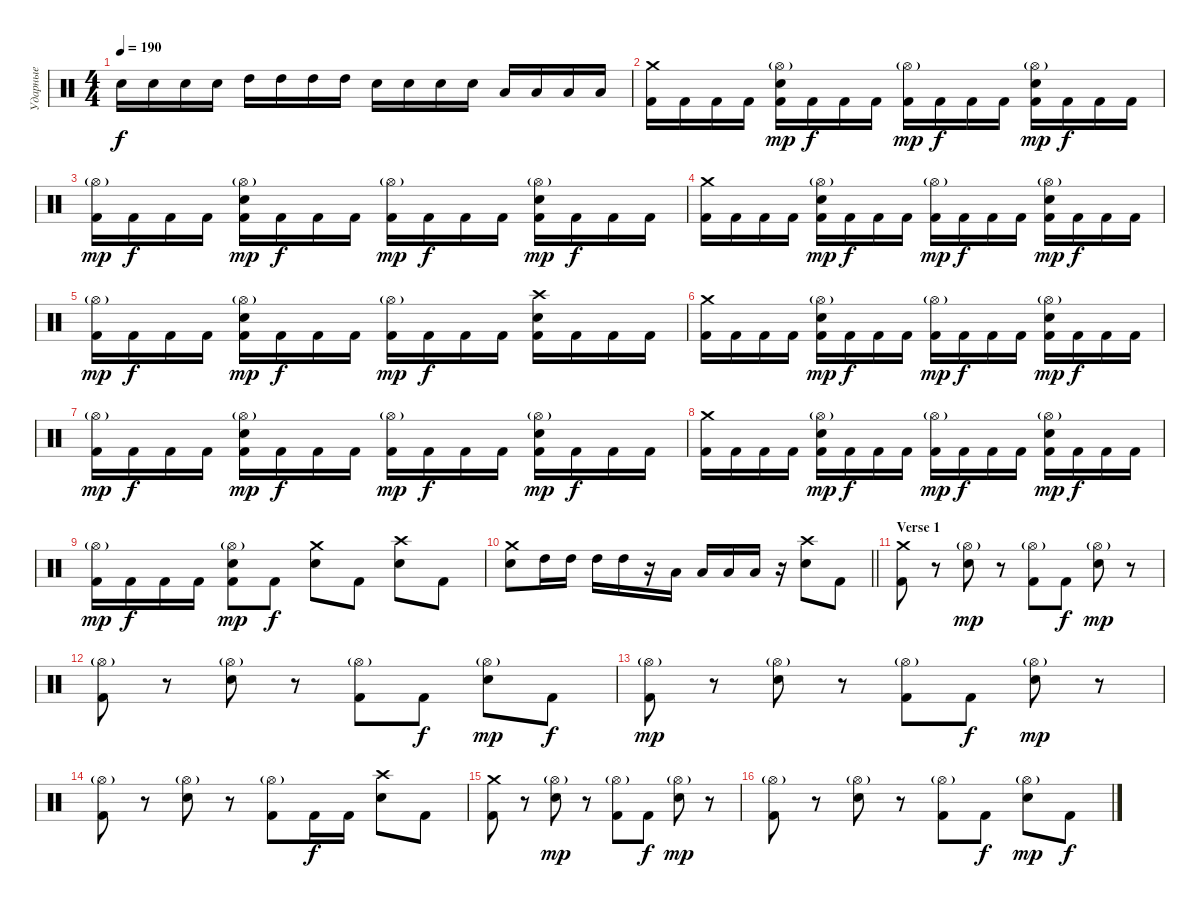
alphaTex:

\track ("Ударные" "Ударные") {instrument percussion}
\staff {score}
\articulation defaults
\ts (4 4)
\tempo 190
\clef neutral
\ks c "Electric Snare (hit)".16{dy f} "Electric Snare (hit)".16 "Electric Snare (hit)".16 "Electric Snare (hit)".16 "High Tom (hit)".16 "High Tom (hit)".16 "High Tom (hit)".16 "High Tom (hit)".16 "Electric Snare (hit)".16 "Electric Snare (hit)".16 "Electric Snare (hit)".16 "Electric Snare (hit)".16 "Low Tom (hit)".16 "Low Tom (hit)".16 "Low Tom (hit)".16 "Low Tom (hit)".16
|
("Crash medium (hit)" "Kick (hit) 2").16 "Kick (hit) 2".16 "Kick (hit) 2".16 "Kick (hit) 2".16 ("Hi-Hat (open)"{g} "Electric Snare (hit)" "Kick (hit) 2").16{dy mp} "Kick (hit) 2".16{dy f} "Kick (hit) 2".16 "Kick (hit) 2".16 ("Hi-Hat (open)"{g} "Kick (hit) 2").16{dy mp} "Kick (hit) 2".16{dy f} "Kick (hit) 2".16 "Kick (hit) 2".16 ("Hi-Hat (open)"{g} "Electric Snare (hit)" "Kick (hit) 2").16{dy mp} "Kick (hit) 2".16{dy f} "Kick (hit) 2".16 "Kick (hit) 2".16 |
("Hi-Hat (open)"{g} "Kick (hit) 2").16{dy mp} "Kick (hit) 2".16{dy f} "Kick (hit) 2".16 "Kick (hit) 2".16 ("Hi-Hat (open)"{g} "Electric Snare (hit)" "Kick (hit) 2").16{dy mp} "Kick (hit) 2".16{dy f} "Kick (hit) 2".16 "Kick (hit) 2".16 ("Hi-Hat (open)"{g} "Kick (hit) 2").16{dy mp} "Kick (hit) 2".16{dy f} "Kick (hit) 2".16 "Kick (hit) 2".16 ("Hi-Hat (open)"{g} "Electric Snare (hit)" "Kick (hit) 2").16{dy mp} "Kick (hit) 2".16{dy f} "Kick (hit) 2".16 "Kick (hit) 2".16 |
("Crash medium (hit)" "Kick (hit) 2").16 "Kick (hit) 2".16 "Kick (hit) 2".16 "Kick (hit) 2".16 ("Hi-Hat (open)"{g} "Electric Snare (hit)" "Kick (hit) 2").16{dy mp} "Kick (hit) 2".16{dy f} "Kick (hit) 2".16 "Kick (hit) 2".16 ("Hi-Hat (open)"{g} "Kick (hit) 2").16{dy mp} "Kick (hit) 2".16{dy f} "Kick (hit) 2".16 "Kick (hit) 2".16 ("Hi-Hat (open)"{g} "Electric Snare (hit)" "Kick (hit) 2").16{dy mp} "Kick (hit) 2".16{dy f} "Kick (hit) 2".16 "Kick (hit) 2".16 |
("Hi-Hat (open)"{g} "Kick (hit) 2").16{dy mp} "Kick (hit) 2".16{dy f} "Kick (hit) 2".16 "Kick (hit) 2".16 ("Hi-Hat (open)"{g} "Electric Snare (hit)" "Kick (hit) 2").16{dy mp} "Kick (hit) 2".16{dy f} "Kick (hit) 2".16 "Kick (hit) 2".16 ("Hi-Hat (open)"{g} "Kick (hit) 2").16{dy mp} "Kick (hit) 2".16{dy f} "Kick (hit) 2".16 "Kick (hit) 2".16 ("Crash high (hit)" "Electric Snare (hit)" "Kick (hit) 2").16 "Kick (hit) 2".16 "Kick (hit) 2".16 "Kick (hit) 2".16 |
("Crash medium (hit)" "Kick (hit) 2").16 "Kick (hit) 2".16 "Kick (hit) 2".16 "Kick (hit) 2".16 ("Hi-Hat (open)"{g} "Electric Snare (hit)" "Kick (hit) 2").16{dy mp} "Kick (hit) 2".16{dy f} "Kick (hit) 2".16 "Kick (hit) 2".16 ("Hi-Hat (open)"{g} "Kick (hit) 2").16{dy mp} "Kick (hit) 2".16{dy f} "Kick (hit) 2".16 "Kick (hit) 2".16 ("Hi-Hat (open)"{g} "Electric Snare (hit)" "Kick (hit) 2").16{dy mp} "Kick (hit) 2".16{dy f} "Kick (hit) 2".16 "Kick (hit) 2".16 |
("Hi-Hat (open)"{g} "Kick (hit) 2").16{dy mp} "Kick (hit) 2".16{dy f} "Kick (hit) 2".16 "Kick (hit) 2".16 ("Hi-Hat (open)"{g} "Electric Snare (hit)" "Kick (hit) 2").16{dy mp} "Kick (hit) 2".16{dy f} "Kick (hit) 2".16 "Kick (hit) 2".16 ("Hi-Hat (open)"{g} "Kick (hit) 2").16{dy mp} "Kick (hit) 2".16{dy f} "Kick (hit) 2".16 "Kick (hit) 2".16 ("Hi-Hat (open)"{g} "Electric Snare (hit)" "Kick (hit) 2").16{dy mp} "Kick (hit) 2".16{dy f} "Kick (hit) 2".16 "Kick (hit) 2".16 |
("Crash medium (hit)" "Kick (hit) 2").16 "Kick (hit) 2".16 "Kick (hit) 2".16 "Kick (hit) 2".16 ("Hi-Hat (open)"{g} "Electric Snare (hit)" "Kick (hit) 2").16{dy mp} "Kick (hit) 2".16{dy f} "Kick (hit) 2".16 "Kick (hit) 2".16 ("Hi-Hat (open)"{g} "Kick (hit) 2").16{dy mp} "Kick (hit) 2".16{dy f} "Kick (hit) 2".16 "Kick (hit) 2".16 ("Hi-Hat (open)"{g} "Electric Snare (hit)" "Kick (hit) 2").16{dy mp} "Kick (hit) 2".16{dy f} "Kick (hit) 2".16 "Kick (hit) 2".16 |
("Hi-Hat (open)"{g} "Kick (hit) 2").16{dy mp} "Kick (hit) 2".16{dy f} "Kick (hit) 2".16 "Kick (hit) 2".16 ("Hi-Hat (open)"{g} "Electric Snare (hit)" "Kick (hit) 2").8{dy mp} "Kick (hit) 2".8{dy f} ("Crash medium (hit)" "Electric Snare (hit)").8 "Kick (hit) 2".8 ("Crash high (hit)" "Electric Snare (hit)").8 "Kick (hit) 2".8 |
\barLineRight lightlight
("Crash medium (hit)" "Electric Snare (hit)").8 "High Tom (hit)".16 "High Tom (hit)".16 "High Tom (hit)".16 "High Tom (hit)".16 r.16 "Low Tom (hit)".16 "Low Tom (hit)".16 "Low Tom (hit)".16 "Low Tom (hit)".16 r.16 ("Crash high (hit)" "Electric Snare (hit)").8 "Kick (hit) 2".8 |
\section ("" "Verse 1")
("Crash medium (hit)" "Kick (hit) 2").8 r.8 ("Hi-Hat (open)"{g} "Electric Snare (hit)").8{dy mp} r.8 ("Hi-Hat (open)"{g} "Kick (hit) 2").8 "Kick (hit) 2".8{dy f} ("Hi-Hat (open)"{g} "Electric Snare (hit)").8{dy mp} r.8 |
("Hi-Hat (open)"{g} "Kick (hit) 2").8 r.8 ("Hi-Hat (open)"{g} "Electric Snare (hit)").8 r.8 ("Hi-Hat (open)"{g} "Kick (hit) 2").8 "Kick (hit) 2".8{dy f} ("Hi-Hat (open)"{g} "Electric Snare (hit)").8{dy mp} "Kick (hit) 2".8{dy f} |
("Hi-Hat (open)"{g} "Kick (hit) 2").8{dy mp} r.8 ("Hi-Hat (open)"{g} "Electric Snare (hit)").8 r.8 ("Hi-Hat (open)"{g} "Kick (hit) 2").8 "Kick (hit) 2".8{dy f} ("Hi-Hat (open)"{g} "Electric Snare (hit)").8{dy mp} r.8 |
("Hi-Hat (open)"{g} "Kick (hit) 2").8 r.8 ("Hi-Hat (open)"{g} "Electric Snare (hit)").8 r.8 ("Hi-Hat (open)"{g} "Kick (hit) 2").8 "Kick (hit) 2".16{dy f} "Kick (hit) 2".16 ("Crash high (hit)" "Electric Snare (hit)").8 "Kick (hit) 2".8 |
("Crash medium (hit)" "Kick (hit) 2").8 r.8 ("Hi-Hat (open)"{g} "Electric Snare (hit)").8{dy mp} r.8 ("Hi-Hat (open)"{g} "Kick (hit) 2").8 "Kick (hit) 2".8{dy f} ("Hi-Hat (open)"{g} "Electric Snare (hit)").8{dy mp} r.8 |
("Hi-Hat (open)"{g} "Kick (hit) 2").8 r.8 ("Hi-Hat (open)"{g} "Electric Snare (hit)").8 r.8 ("Hi-Hat (open)"{g} "Kick (hit) 2").8 "Kick (hit) 2".8{dy f} ("Hi-Hat (open)"{g} "Electric Snare (hit)").8{dy mp} "Kick (hit) 2".8{dy f}
